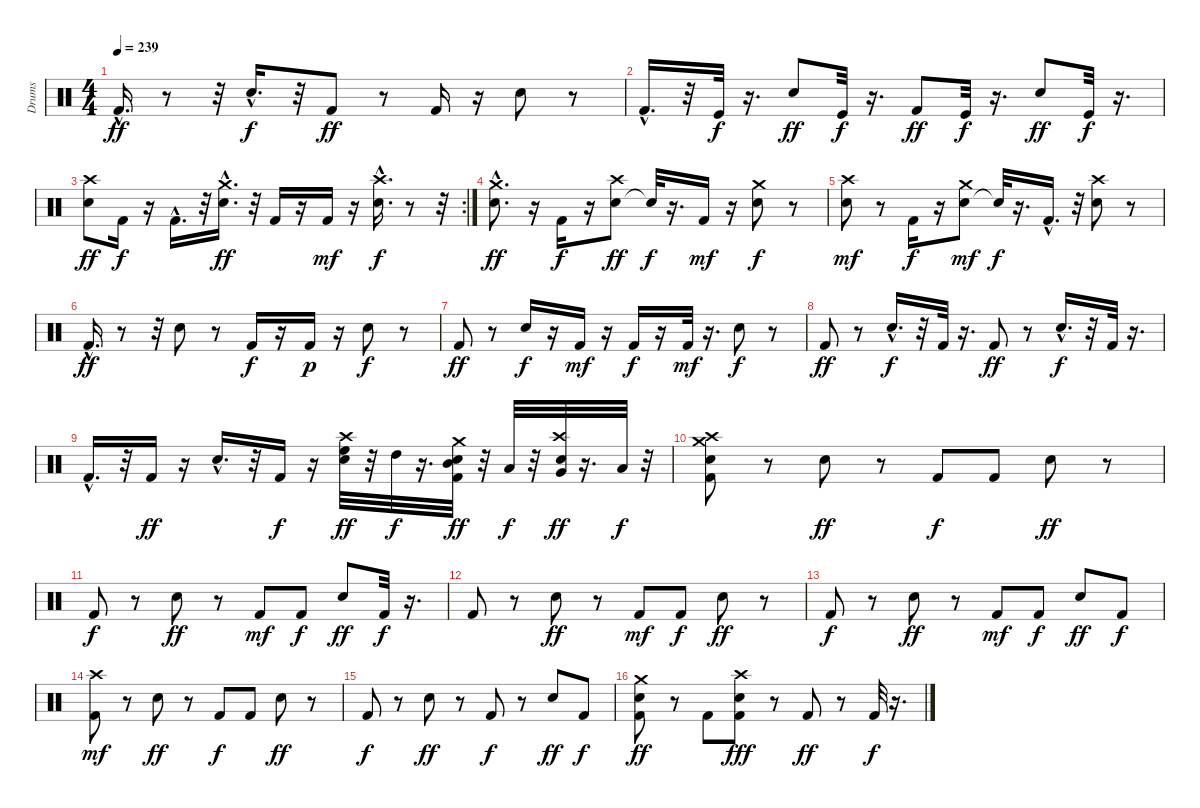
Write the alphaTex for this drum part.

\track ("Drums" "Drums") {instrument percussion}
\staff {score}
\articulation defaults
\ts (4 4)
\tempo 239
\clef neutral
\ks c "Kick (hit) 2"{hac}.16{d dy ff}
r.8 r.32 "Snare (hit) 2"{hac}.16{d dy f} r.32 "Kick (hit) 2".8{dy ff} r.8 "Kick (hit) 2".16 r.16 "Snare (hit) 2".8 r.8 |
"Kick (hit) 2"{hac}.16{d} r.32 "Kick (hit)".32{dy f} r.16{d} "Snare (hit) 2".8{dy ff} "Kick (hit)".32{dy f} r.16{d} "Kick (hit) 2".8{dy ff} "Kick (hit)".32{dy f} r.16{d} "Snare (hit) 2".8{dy ff} "Kick (hit)".32{dy f} r.16{d} |
\rc 2
("Snare (hit) 2" "Crash high (hit)").8{dy ff} "Kick (hit) 2".16{dy f} r.16 "Kick (hit) 2"{hac}.16{d} r.32 ("Snare (hit) 2"{hac} "Crash medium (hit)").16{d dy ff} r.32 "Kick (hit) 2".16 r.16 "Kick (hit) 2".16{dy mf} r.16 ("Snare (hit) 2"{hac} "Crash high (hit)").16{d dy f} r.8 r.32 |
("Crash medium (hit)" "Snare (hit) 2"{hac}).8{d dy ff} r.16 "Kick (hit) 2".16{dy f} r.16 ("Snare (hit) 2" "Crash high (hit)").8{dy ff} "Snare (hit)"{t}.32{dy f} r.16{d} "Kick (hit) 2".16{dy mf} r.16 ("Crash medium (hit)" "Snare (hit) 2").8{dy f} r.8 |
("Crash high (hit)" "Snare (hit) 2").8{dy mf} r.8 "Kick (hit) 2".16{dy f} r.16 ("Snare (hit) 2" "Crash medium (hit)").8{dy mf} "Snare (hit)"{t}.32{dy f} r.16{d} "Kick (hit) 2"{hac}.16{d} r.32 ("Crash high (hit)" "Snare (hit) 2").8 r.8 |
"Kick (hit) 2"{hac}.16{d dy ff} r.8 r.32 "Snare (hit) 2".8 r.8 "Kick (hit) 2".16{dy f} r.16 "Kick (hit) 2".16{dy p} r.16 "Snare (hit) 2".8{dy f} r.8 |
"Kick (hit) 2".8{dy ff} r.8 "Snare (hit) 2".16{dy f} r.16 "Kick (hit) 2".16{dy mf} r.16 "Kick (hit) 2".16{dy f} r.16 "Kick (hit) 2".32{dy mf} r.16{d} "Snare (hit) 2".8{dy f} r.8 |
"Kick (hit) 2".8{dy ff} r.8 "Snare (hit) 2"{hac}.16{d dy f} r.32 "Kick (hit) 2".32 r.16{d} "Kick (hit) 2".8{dy ff} r.8 "Snare (hit) 2"{hac}.16{d dy f} r.32 "Kick (hit) 2".32 r.16{d} |
"Kick (hit) 2"{hac}.16{d} r.32 "Kick (hit) 2".16{dy ff} r.16 "Snare (hit) 2"{hac}.16{d} r.32 "Kick (hit) 2".16{dy f} r.16 ("High Floor Tom (hit)" "Snare (hit) 2" "Crash high (hit)").32{dy ff} r.32 "High Tom (hit)".32{dy f} r.16{d} ("Snare (hit) 2" "Kick (hit) 2" "Crash medium (hit)" "Mid Tom (hit)").32{dy ff} r.32 "Low Tom (hit)".32{dy f} r.32 ("Crash high (hit)" "Very Low Tom (hit)" "Snare (hit) 2").32{dy ff} r.16{d} "Low Floor Tom (hit)".32{dy f} r.32 |
("Crash medium (hit)" "Kick (hit) 2" "Crash high (hit)" "Snare (hit) 2").8 r.8 "Snare (hit) 2".8{dy ff} r.8 "Kick (hit) 2".8{dy f} "Kick (hit) 2".8 "Snare (hit) 2".8{dy ff} r.8 |
"Kick (hit) 2".8{dy f} r.8 "Snare (hit) 2".8{dy ff} r.8 "Kick (hit) 2".8{dy mf} "Kick (hit) 2".8{dy f} "Snare (hit) 2".8{dy ff} "Kick (hit) 2".32{dy f} r.16{d} |
"Kick (hit) 2".8 r.8 "Snare (hit) 2".8{dy ff} r.8 "Kick (hit) 2".8{dy mf} "Kick (hit) 2".8{dy f} "Snare (hit) 2".8{dy ff} r.8 |
"Kick (hit) 2".8{dy f} r.8 "Snare (hit) 2".8{dy ff} r.8 "Kick (hit) 2".8{dy mf} "Kick (hit) 2".8{dy f} "Snare (hit) 2".8{dy ff} "Kick (hit) 2".8{dy f} |
("Kick (hit) 2" "Crash high (hit)").8{dy mf} r.8 "Snare (hit) 2".8{dy ff} r.8 "Kick (hit) 2".8{dy f} "Kick (hit) 2".8 "Snare (hit) 2".8{dy ff} r.8 |
"Kick (hit) 2".8{dy f} r.8 "Snare (hit) 2".8{dy ff} r.8 "Kick (hit) 2".8{dy f} r.8 "Snare (hit) 2".8{dy ff} "Kick (hit) 2".8{dy f} |
("Kick (hit) 2" "Crash medium (hit)" "Snare (hit) 2").8{dy ff} r.8 "Kick (hit) 2".8 ("Kick (hit) 2" "Snare (hit) 2" "Crash high (hit)").8{dy fff} r.8 "Kick (hit) 2".8{dy ff} r.8 "Kick (hit) 2".32{dy f} r.16{d}
